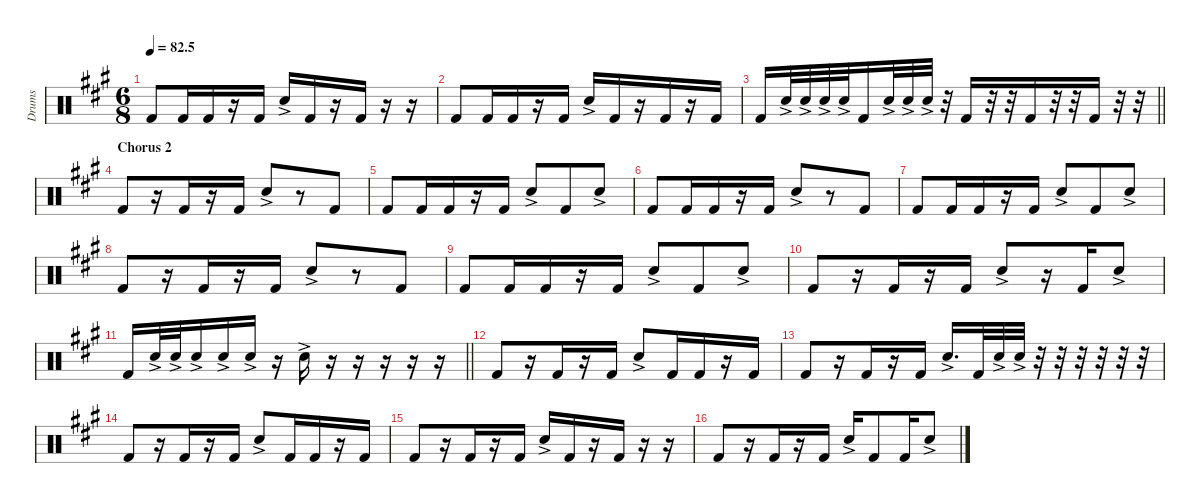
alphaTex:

\defaultSystemsLayout 4
\hideDynamics
\bracketExtendMode nobrackets
\otherSystemsTrackNameOrientation horizontal
\track ("F&S" "Drums") {instrument percussion}
\staff {score}
\articulation defaults
\ts (6 8)
\tempo
82.5
\accidentals auto
\clef neutral
\ottava regular
\simile none
\scale
0.333333
\ks a "Kick (hit) 2"{acc forcenatural}.8{dy f} "Kick (hit) 2"{acc forcenatural}.16 "Kick (hit) 2"{acc forcenatural}.16
r.16 "Kick (hit) 2"{acc forcenatural}.16 "Snare (hit) 2"{ac acc forcenatural}.16 "Kick (hit) 2"{acc forcenatural}.16 r.16 "Kick (hit) 2"{acc forcenatural}.16 r.16 r.16 |
\scale
0.333333 "Kick (hit) 2"{acc forcenatural}.8 "Kick (hit) 2"{acc forcenatural}.16 "Kick (hit) 2"{acc forcenatural}.16 r.16 "Kick (hit) 2"{acc forcenatural}.16 "Snare (hit) 2"{ac acc forcenatural}.16 "Kick (hit) 2"{acc forcenatural}.16 r.16 "Kick (hit) 2"{acc forcenatural}.16 r.16 "Kick (hit) 2"{acc forcenatural}.16 |
\scale
0.333333
\barLineRight lightlight "Kick (hit) 2"{acc forcenatural}.16 "Snare (hit) 2"{ac acc forcenatural}.32 "Snare (hit) 2"{ac acc forcenatural}.32 "Snare (hit) 2"{ac acc forcenatural}.32 "Snare (hit) 2"{ac acc forcenatural}.32 "Kick (hit) 2"{acc forcenatural}.16 "Snare (hit) 2"{ac acc forcenatural}.32 "Snare (hit) 2"{ac acc forcenatural}.32 "Snare (hit) 2"{ac acc forcenatural}.32
r.32 "Kick (hit) 2"{acc forcenatural}.16 r.32 r.32 "Kick (hit) 2"{acc forcenatural}.16 r.32 r.32 "Kick (hit) 2"{acc forcenatural}.16 r.32 r.32 |
\section ("" "Chorus 2")
\scale
0.333333 "Kick (hit) 2"{acc forcenatural}.8 r.16 "Kick (hit) 2"{acc forcenatural}.16 r.16 "Kick (hit) 2"{acc forcenatural}.16 "Snare (hit) 2"{ac acc forcenatural}.8 r.8 "Kick (hit) 2"{acc forcenatural}.8 |
\scale
0.333333 "Kick (hit) 2"{acc forcenatural}.8 "Kick (hit) 2"{acc forcenatural}.16 "Kick (hit) 2"{acc forcenatural}.16 r.16 "Kick (hit) 2"{acc forcenatural}.16 "Snare (hit) 2"{ac acc forcenatural}.8 "Kick (hit) 2"{acc forcenatural}.8 "Snare (hit) 2"{ac acc forcenatural}.8 |
\scale
0.333333 "Kick (hit) 2"{acc forcenatural}.8 "Kick (hit) 2"{acc forcenatural}.16 "Kick (hit) 2"{acc forcenatural}.16 r.16 "Kick (hit) 2"{acc forcenatural}.16 "Snare (hit) 2"{ac acc forcenatural}.8 r.8 "Kick (hit) 2"{acc forcenatural}.8 |
\scale
0.333333 "Kick (hit) 2"{acc forcenatural}.8 "Kick (hit) 2"{acc forcenatural}.16 "Kick (hit) 2"{acc forcenatural}.16 r.16 "Kick (hit) 2"{acc forcenatural}.16 "Snare (hit) 2"{ac acc forcenatural}.8 "Kick (hit) 2"{acc forcenatural}.8 "Snare (hit) 2"{ac acc forcenatural}.8 |
\scale
0.333333 "Kick (hit) 2"{acc forcenatural}.8 r.16 "Kick (hit) 2"{acc forcenatural}.16 r.16 "Kick (hit) 2"{acc forcenatural}.16 "Snare (hit) 2"{ac acc forcenatural}.8 r.8 "Kick (hit) 2"{acc forcenatural}.8 |
\scale
0.333333 "Kick (hit) 2"{acc forcenatural}.8 "Kick (hit) 2"{acc forcenatural}.16 "Kick (hit) 2"{acc forcenatural}.16 r.16 "Kick (hit) 2"{acc forcenatural}.16 "Snare (hit) 2"{ac acc forcenatural}.8 "Kick (hit) 2"{acc forcenatural}.8 "Snare (hit) 2"{ac acc forcenatural}.8 |
\scale
0.333333 "Kick (hit) 2"{acc forcenatural}.8 r.16 "Kick (hit) 2"{acc forcenatural}.16 r.16 "Kick (hit) 2"{acc forcenatural}.16 "Snare (hit) 2"{ac acc forcenatural}.8 r.16 "Kick (hit) 2"{acc forcenatural}.16 "Snare (hit) 2"{ac acc forcenatural}.8 |
\scale
0.333333
\barLineRight lightlight "Kick (hit) 2"{acc forcenatural}.16 "Snare (hit) 2"{ac acc forcenatural}.32 "Snare (hit) 2"{ac acc forcenatural}.32 "Snare (hit) 2"{ac acc forcenatural}.16 "Snare (hit) 2"{ac acc forcenatural}.16 "Snare (hit) 2"{ac acc forcenatural}.16
r.16 "Snare (hit) 2"{ac acc forcenatural}.16 r.16 r.16 r.16 r.16 r.16 |
\scale
0.333333 "Kick (hit) 2"{acc forcenatural}.8 r.16 "Kick (hit) 2"{acc forcenatural}.16 r.16 "Kick (hit) 2"{acc forcenatural}.16 "Snare (hit) 2"{ac acc forcenatural}.8 "Kick (hit) 2"{acc forcenatural}.16 "Kick (hit) 2"{acc forcenatural}.16 r.16 "Kick (hit) 2"{acc forcenatural}.16 |
\scale
0.333333 "Kick (hit) 2"{acc forcenatural}.8 r.16 "Kick (hit) 2"{acc forcenatural}.16 r.16 "Kick (hit) 2"{acc forcenatural}.16 "Snare (hit) 2"{ac acc forcenatural}.16{d} "Kick (hit) 2"{acc forcenatural}.32 "Snare (hit) 2"{ac acc forcenatural}.32 "Snare (hit) 2"{ac acc forcenatural}.32 r.32 r.32 r.32 r.32 r.32 r.32 |
\scale
0.333333 "Kick (hit) 2"{acc forcenatural}.8 r.16 "Kick (hit) 2"{acc forcenatural}.16 r.16 "Kick (hit) 2"{acc forcenatural}.16 "Snare (hit) 2"{ac acc forcenatural}.8 "Kick (hit) 2"{acc forcenatural}.16 "Kick (hit) 2"{acc forcenatural}.16 r.16 "Kick (hit) 2"{acc forcenatural}.16 |
\scale
0.333333 "Kick (hit) 2"{acc forcenatural}.8 r.16 "Kick (hit) 2"{acc forcenatural}.16 r.16 "Kick (hit) 2"{acc forcenatural}.16 "Snare (hit) 2"{ac acc forcenatural}.16 "Kick (hit) 2"{acc forcenatural}.16 r.16 "Kick (hit) 2"{acc forcenatural}.16 r.16 r.16 |
\scale
0.333333 "Kick (hit) 2"{acc forcenatural}.8 r.16 "Kick (hit) 2"{acc forcenatural}.16 r.16 "Kick (hit) 2"{acc forcenatural}.16 "Snare (hit) 2"{ac acc forcenatural}.16 "Kick (hit) 2"{acc forcenatural}.8 "Kick (hit) 2"{acc forcenatural}.16 "Snare (hit) 2"{ac acc forcenatural}.8
